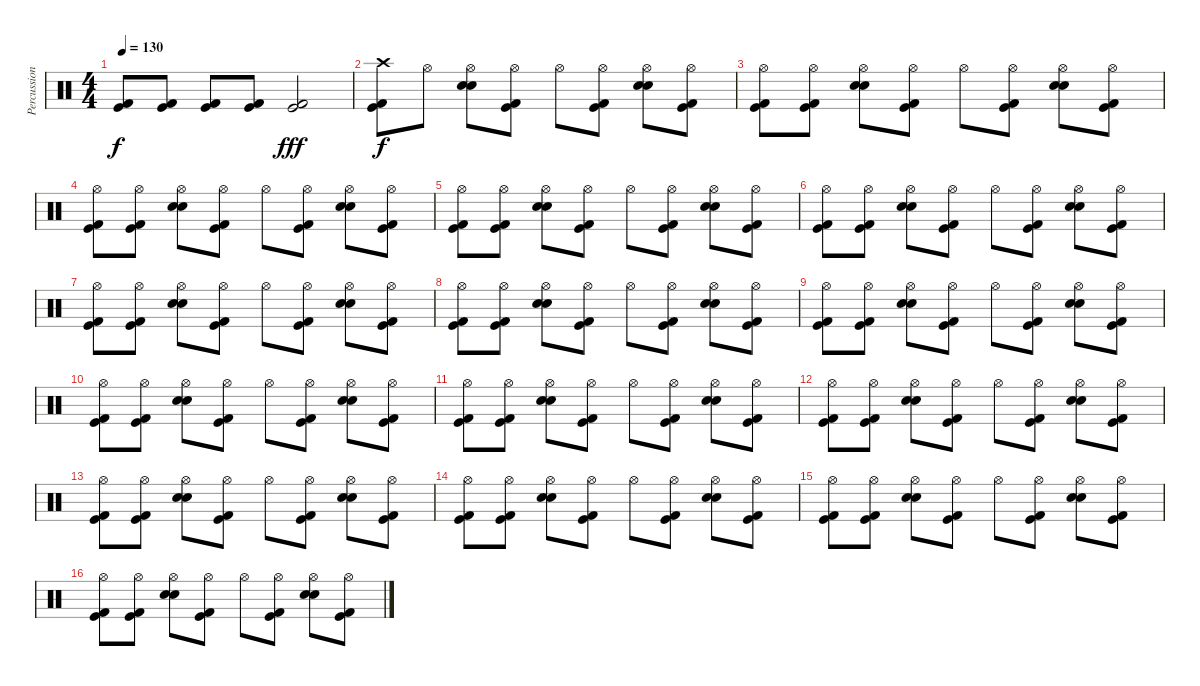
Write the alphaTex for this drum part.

\track ("Percussions" "Percussion") {instrument percussion}
\staff {score}
\articulation defaults
\ts (4 4)
\tempo 130
\clef neutral
\ks c
("Kick (hit)" "Kick (hit) 2").8{dy f} ("Kick (hit)" "Kick (hit) 2").8 ("Kick (hit)" "Kick (hit) 2").8 ("Kick (hit)" "Kick (hit) 2").8 ("Kick (hit)" "Kick (hit) 2").2{dy fff} |
("Crash high (hit)" "Kick (hit)" "Kick (hit) 2").8{dy f} "Hi-Hat (open)".8 ("Hi-Hat (open)" "Snare (hit) 2" "Electric Snare (hit)").8 ("Hi-Hat (open)" "Kick (hit)" "Kick (hit) 2").8 "Hi-Hat (open)".8 ("Hi-Hat (open)" "Kick (hit)" "Kick (hit) 2").8 ("Hi-Hat (open)" "Snare (hit) 2" "Electric Snare (hit)").8 ("Hi-Hat (open)" "Kick (hit)" "Kick (hit) 2").8 |
("Hi-Hat (open)" "Kick (hit)" "Kick (hit) 2").8 ("Hi-Hat (open)" "Kick (hit)" "Kick (hit) 2").8 ("Hi-Hat (open)" "Snare (hit) 2" "Electric Snare (hit)").8 ("Hi-Hat (open)" "Kick (hit)" "Kick (hit) 2").8 "Hi-Hat (open)".8 ("Hi-Hat (open)" "Kick (hit)" "Kick (hit) 2").8 ("Hi-Hat (open)" "Snare (hit) 2" "Electric Snare (hit)").8 ("Hi-Hat (open)" "Kick (hit)" "Kick (hit) 2").8 |
("Hi-Hat (open)" "Kick (hit)" "Kick (hit) 2").8 ("Hi-Hat (open)" "Kick (hit)" "Kick (hit) 2").8 ("Hi-Hat (open)" "Snare (hit) 2" "Electric Snare (hit)").8 ("Hi-Hat (open)" "Kick (hit)" "Kick (hit) 2").8 "Hi-Hat (open)".8 ("Hi-Hat (open)" "Kick (hit)" "Kick (hit) 2").8 ("Hi-Hat (open)" "Snare (hit) 2" "Electric Snare (hit)").8 ("Hi-Hat (open)" "Kick (hit)" "Kick (hit) 2").8 |
("Hi-Hat (open)" "Kick (hit)" "Kick (hit) 2").8 ("Hi-Hat (open)" "Kick (hit)" "Kick (hit) 2").8 ("Hi-Hat (open)" "Snare (hit) 2" "Electric Snare (hit)").8 ("Hi-Hat (open)" "Kick (hit)" "Kick (hit) 2").8 "Hi-Hat (open)".8 ("Hi-Hat (open)" "Kick (hit)" "Kick (hit) 2").8 ("Hi-Hat (open)" "Snare (hit) 2" "Electric Snare (hit)").8 ("Hi-Hat (open)" "Kick (hit)" "Kick (hit) 2").8 |
("Hi-Hat (open)" "Kick (hit)" "Kick (hit) 2").8 ("Hi-Hat (open)" "Kick (hit)" "Kick (hit) 2").8 ("Hi-Hat (open)" "Snare (hit) 2" "Electric Snare (hit)").8 ("Hi-Hat (open)" "Kick (hit)" "Kick (hit) 2").8 "Hi-Hat (open)".8 ("Hi-Hat (open)" "Kick (hit)" "Kick (hit) 2").8 ("Hi-Hat (open)" "Snare (hit) 2" "Electric Snare (hit)").8 ("Hi-Hat (open)" "Kick (hit)" "Kick (hit) 2").8 |
("Hi-Hat (open)" "Kick (hit)" "Kick (hit) 2").8 ("Hi-Hat (open)" "Kick (hit)" "Kick (hit) 2").8 ("Hi-Hat (open)" "Snare (hit) 2" "Electric Snare (hit)").8 ("Hi-Hat (open)" "Kick (hit)" "Kick (hit) 2").8 "Hi-Hat (open)".8 ("Hi-Hat (open)" "Kick (hit)" "Kick (hit) 2").8 ("Hi-Hat (open)" "Snare (hit) 2" "Electric Snare (hit)").8 ("Hi-Hat (open)" "Kick (hit)" "Kick (hit) 2").8 |
("Hi-Hat (open)" "Kick (hit)" "Kick (hit) 2").8 ("Hi-Hat (open)" "Kick (hit)" "Kick (hit) 2").8 ("Hi-Hat (open)" "Snare (hit) 2" "Electric Snare (hit)").8 ("Hi-Hat (open)" "Kick (hit)" "Kick (hit) 2").8 "Hi-Hat (open)".8 ("Hi-Hat (open)" "Kick (hit)" "Kick (hit) 2").8 ("Hi-Hat (open)" "Snare (hit) 2" "Electric Snare (hit)").8 ("Hi-Hat (open)" "Kick (hit)" "Kick (hit) 2").8 |
("Hi-Hat (open)" "Kick (hit)" "Kick (hit) 2").8 ("Hi-Hat (open)" "Kick (hit)" "Kick (hit) 2").8 ("Hi-Hat (open)" "Snare (hit) 2" "Electric Snare (hit)").8 ("Hi-Hat (open)" "Kick (hit)" "Kick (hit) 2").8 "Hi-Hat (open)".8 ("Hi-Hat (open)" "Kick (hit)" "Kick (hit) 2").8 ("Hi-Hat (open)" "Snare (hit) 2" "Electric Snare (hit)").8 ("Hi-Hat (open)" "Kick (hit)" "Kick (hit) 2").8 |
("Hi-Hat (open)" "Kick (hit)" "Kick (hit) 2").8 ("Hi-Hat (open)" "Kick (hit)" "Kick (hit) 2").8 ("Hi-Hat (open)" "Snare (hit) 2" "Electric Snare (hit)").8 ("Hi-Hat (open)" "Kick (hit)" "Kick (hit) 2").8 "Hi-Hat (open)".8 ("Hi-Hat (open)" "Kick (hit)" "Kick (hit) 2").8 ("Hi-Hat (open)" "Snare (hit) 2" "Electric Snare (hit)").8 ("Hi-Hat (open)" "Kick (hit)" "Kick (hit) 2").8 |
("Hi-Hat (open)" "Kick (hit)" "Kick (hit) 2").8 ("Hi-Hat (open)" "Kick (hit)" "Kick (hit) 2").8 ("Hi-Hat (open)" "Snare (hit) 2" "Electric Snare (hit)").8 ("Hi-Hat (open)" "Kick (hit)" "Kick (hit) 2").8 "Hi-Hat (open)".8 ("Hi-Hat (open)" "Kick (hit)" "Kick (hit) 2").8 ("Hi-Hat (open)" "Snare (hit) 2" "Electric Snare (hit)").8 ("Hi-Hat (open)" "Kick (hit)" "Kick (hit) 2").8 |
("Hi-Hat (open)" "Kick (hit)" "Kick (hit) 2").8 ("Hi-Hat (open)" "Kick (hit)" "Kick (hit) 2").8 ("Hi-Hat (open)" "Snare (hit) 2" "Electric Snare (hit)").8 ("Hi-Hat (open)" "Kick (hit)" "Kick (hit) 2").8 "Hi-Hat (open)".8 ("Hi-Hat (open)" "Kick (hit)" "Kick (hit) 2").8 ("Hi-Hat (open)" "Snare (hit) 2" "Electric Snare (hit)").8 ("Hi-Hat (open)" "Kick (hit)" "Kick (hit) 2").8 |
("Hi-Hat (open)" "Kick (hit)" "Kick (hit) 2").8 ("Hi-Hat (open)" "Kick (hit)" "Kick (hit) 2").8 ("Hi-Hat (open)" "Snare (hit) 2" "Electric Snare (hit)").8 ("Hi-Hat (open)" "Kick (hit)" "Kick (hit) 2").8 "Hi-Hat (open)".8 ("Hi-Hat (open)" "Kick (hit)" "Kick (hit) 2").8 ("Hi-Hat (open)" "Snare (hit) 2" "Electric Snare (hit)").8 ("Hi-Hat (open)" "Kick (hit)" "Kick (hit) 2").8 |
("Hi-Hat (open)" "Kick (hit)" "Kick (hit) 2").8 ("Hi-Hat (open)" "Kick (hit)" "Kick (hit) 2").8 ("Hi-Hat (open)" "Snare (hit) 2" "Electric Snare (hit)").8 ("Hi-Hat (open)" "Kick (hit)" "Kick (hit) 2").8 "Hi-Hat (open)".8 ("Hi-Hat (open)" "Kick (hit)" "Kick (hit) 2").8 ("Hi-Hat (open)" "Snare (hit) 2" "Electric Snare (hit)").8 ("Hi-Hat (open)" "Kick (hit)" "Kick (hit) 2").8 |
("Hi-Hat (open)" "Kick (hit)" "Kick (hit) 2").8 ("Hi-Hat (open)" "Kick (hit)" "Kick (hit) 2").8 ("Hi-Hat (open)" "Snare (hit) 2" "Electric Snare (hit)").8 ("Hi-Hat (open)" "Kick (hit)" "Kick (hit) 2").8 "Hi-Hat (open)".8 ("Hi-Hat (open)" "Kick (hit)" "Kick (hit) 2").8 ("Hi-Hat (open)" "Snare (hit) 2" "Electric Snare (hit)").8 ("Hi-Hat (open)" "Kick (hit)" "Kick (hit) 2").8 |
("Hi-Hat (open)" "Kick (hit)" "Kick (hit) 2").8 ("Hi-Hat (open)" "Kick (hit)" "Kick (hit) 2").8 ("Hi-Hat (open)" "Snare (hit) 2" "Electric Snare (hit)").8 ("Hi-Hat (open)" "Kick (hit)" "Kick (hit) 2").8 "Hi-Hat (open)".8 ("Hi-Hat (open)" "Kick (hit)" "Kick (hit) 2").8 ("Hi-Hat (open)" "Snare (hit) 2" "Electric Snare (hit)").8 ("Hi-Hat (open)" "Kick (hit)" "Kick (hit) 2").8
